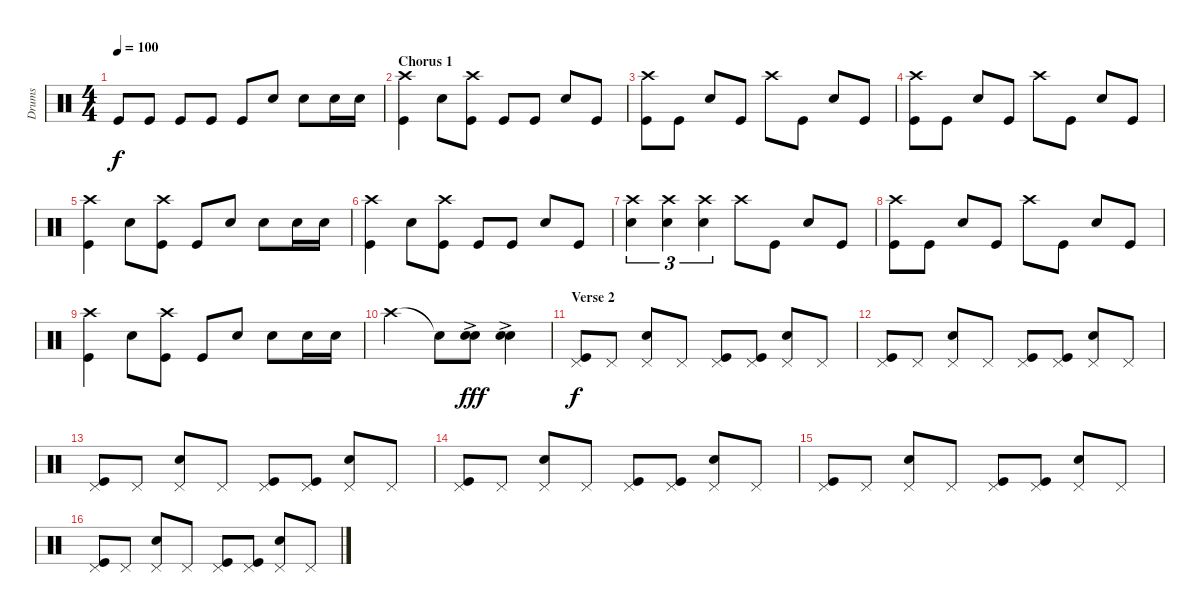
\track ("Drums" "Drums") {instrument percussion}
\staff {score}
\articulation defaults
\ts (4 4)
\tempo 100
\clef neutral
\ks c "Kick (hit)".8{dy f} "Kick (hit)".8 "Kick (hit)".8 "Kick (hit)".8 "Kick (hit)".8 "Snare (hit) 2".8 "Snare (hit) 2".8 "Snare (hit) 2".16 "Snare (hit) 2".16
|
\section ("" "Chorus 1")
("Crash high (hit)" "Kick (hit)").4 "Snare (hit) 2".8 ("Crash high (hit)" "Kick (hit)").8 "Kick (hit)".8 "Kick (hit)".8 "Snare (hit) 2".8 "Kick (hit)".8 |
("Crash high (hit)" "Kick (hit)").8 "Kick (hit)".8 "Snare (hit) 2".8 "Kick (hit)".8 "Crash high (hit)".8 "Kick (hit)".8 "Snare (hit) 2".8 "Kick (hit)".8 |
("Crash high (hit)" "Kick (hit)").8 "Kick (hit)".8 "Snare (hit) 2".8 "Kick (hit)".8 "Crash high (hit)".8 "Kick (hit)".8 "Snare (hit) 2".8 "Kick (hit)".8 |
("Crash high (hit)" "Kick (hit)").4 "Snare (hit) 2".8 ("Crash high (hit)" "Kick (hit)").8 "Kick (hit)".8 "Snare (hit) 2".8 "Snare (hit) 2".8 "Snare (hit) 2".16 "Snare (hit) 2".16 |
("Crash high (hit)" "Kick (hit)").4 "Snare (hit) 2".8 ("Crash high (hit)" "Kick (hit)").8 "Kick (hit)".8 "Kick (hit)".8 "Snare (hit) 2".8 "Kick (hit)".8 |
("Crash high (hit)" "Snare (hit) 2").4{tu (3 2)} ("Crash high (hit)" "Snare (hit) 2").4{tu (3 2)} ("Crash high (hit)" "Snare (hit) 2").4{tu (3 2)} "Crash high (hit)".8 "Kick (hit)".8 "Snare (hit) 2".8 "Kick (hit)".8 |
("Crash high (hit)" "Kick (hit)").8 "Kick (hit)".8 "Snare (hit) 2".8 "Kick (hit)".8 "Crash high (hit)".8 "Kick (hit)".8 "Snare (hit) 2".8 "Kick (hit)".8 |
("Crash high (hit)" "Kick (hit)").4 "Snare (hit) 2".8 ("Crash high (hit)" "Kick (hit)").8 "Kick (hit)".8 "Snare (hit) 2".8 "Snare (hit) 2".8 "Snare (hit) 2".16 "Snare (hit) 2".16 |
"Crash high (hit)".2 "Snare (hit)"{t}.8 ("Snare (hit) 2"{ac} "Hand Clap (hit)"{ac}).8{dy fff} ("Snare (hit) 2"{ac} "Hand Clap (hit)"{ac}).4 |
\section ("" "Verse 2")
("Pedal Hi-Hat (hit)" "Kick (hit)").8{dy f} "Pedal Hi-Hat (hit)".8 ("Pedal Hi-Hat (hit)" "Snare (hit) 2").8 "Pedal Hi-Hat (hit)".8 ("Pedal Hi-Hat (hit)" "Kick (hit)").8 ("Pedal Hi-Hat (hit)" "Kick (hit)").8 ("Pedal Hi-Hat (hit)" "Snare (hit) 2").8 "Pedal Hi-Hat (hit)".8 |
("Pedal Hi-Hat (hit)" "Kick (hit)").8 "Pedal Hi-Hat (hit)".8 ("Pedal Hi-Hat (hit)" "Snare (hit) 2").8 "Pedal Hi-Hat (hit)".8 ("Pedal Hi-Hat (hit)" "Kick (hit)").8 ("Pedal Hi-Hat (hit)" "Kick (hit)").8 ("Pedal Hi-Hat (hit)" "Snare (hit) 2").8 "Pedal Hi-Hat (hit)".8 |
("Pedal Hi-Hat (hit)" "Kick (hit)").8 "Pedal Hi-Hat (hit)".8 ("Pedal Hi-Hat (hit)" "Snare (hit) 2").8 "Pedal Hi-Hat (hit)".8 ("Pedal Hi-Hat (hit)" "Kick (hit)").8 ("Pedal Hi-Hat (hit)" "Kick (hit)").8 ("Pedal Hi-Hat (hit)" "Snare (hit) 2").8 "Pedal Hi-Hat (hit)".8 |
("Pedal Hi-Hat (hit)" "Kick (hit)").8 "Pedal Hi-Hat (hit)".8 ("Pedal Hi-Hat (hit)" "Snare (hit) 2").8 "Pedal Hi-Hat (hit)".8 ("Pedal Hi-Hat (hit)" "Kick (hit)").8 ("Pedal Hi-Hat (hit)" "Kick (hit)").8 ("Pedal Hi-Hat (hit)" "Snare (hit) 2").8 "Pedal Hi-Hat (hit)".8 |
("Pedal Hi-Hat (hit)" "Kick (hit)").8 "Pedal Hi-Hat (hit)".8 ("Pedal Hi-Hat (hit)" "Snare (hit) 2").8 "Pedal Hi-Hat (hit)".8 ("Pedal Hi-Hat (hit)" "Kick (hit)").8 ("Pedal Hi-Hat (hit)" "Kick (hit)").8 ("Pedal Hi-Hat (hit)" "Snare (hit) 2").8 "Pedal Hi-Hat (hit)".8 |
("Pedal Hi-Hat (hit)" "Kick (hit)").8 "Pedal Hi-Hat (hit)".8 ("Pedal Hi-Hat (hit)" "Snare (hit) 2").8 "Pedal Hi-Hat (hit)".8 ("Pedal Hi-Hat (hit)" "Kick (hit)").8 ("Pedal Hi-Hat (hit)" "Kick (hit)").8 ("Pedal Hi-Hat (hit)" "Snare (hit) 2").8 "Pedal Hi-Hat (hit)".8
